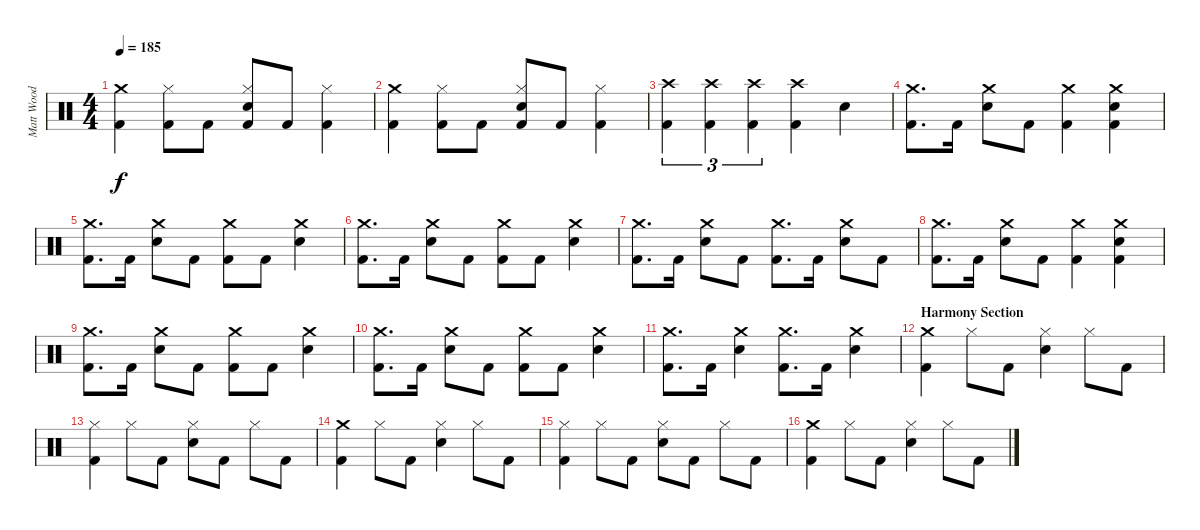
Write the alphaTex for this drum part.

\track ("Matt Wood" "Matt Wood") {instrument percussion}
\staff {score}
\articulation defaults
\ts (4 4)
\tempo 185
\clef neutral
\ks c
("Crash medium (hit)" "Kick (hit) 2").4{dy f} ("Hi-Hat (closed)" "Kick (hit) 2").8 "Kick (hit) 2".8 ("Hi-Hat (closed)" "Snare (hit) 2" "Kick (hit) 2").8 "Kick (hit) 2".8 ("Hi-Hat (closed)" "Kick (hit) 2").4 |
("Crash medium (hit)" "Kick (hit) 2").4 ("Hi-Hat (closed)" "Kick (hit) 2").8 "Kick (hit) 2".8 ("Hi-Hat (closed)" "Snare (hit) 2" "Kick (hit) 2").8 "Kick (hit) 2".8 ("Hi-Hat (closed)" "Kick (hit) 2").4 |
("Crash high (hit)" "Kick (hit) 2").4{tu (3 2)} ("Crash high (hit)" "Kick (hit) 2").4{tu (3 2)} ("Crash high (hit)" "Kick (hit) 2").4{tu (3 2)} ("Crash high (hit)" "Kick (hit) 2").4 "Snare (hit) 2".4 |
("Crash medium (hit)" "Kick (hit) 2").8{d} "Kick (hit) 2".16 ("Crash medium (hit)" "Snare (hit) 2").8 "Kick (hit) 2".8 ("Crash medium (hit)" "Kick (hit) 2").4 ("Crash medium (hit)" "Snare (hit) 2" "Kick (hit) 2").4 |
("Crash medium (hit)" "Kick (hit) 2").8{d} "Kick (hit) 2".16 ("Crash medium (hit)" "Snare (hit) 2").8 "Kick (hit) 2".8 ("Crash medium (hit)" "Kick (hit) 2").8 "Kick (hit) 2".8 ("Crash medium (hit)" "Snare (hit) 2").4 |
("Crash medium (hit)" "Kick (hit) 2").8{d} "Kick (hit) 2".16 ("Crash medium (hit)" "Snare (hit) 2").8 "Kick (hit) 2".8 ("Crash medium (hit)" "Kick (hit) 2").8 "Kick (hit) 2".8 ("Crash medium (hit)" "Snare (hit) 2").4 |
("Crash medium (hit)" "Kick (hit) 2").8{d} "Kick (hit) 2".16 ("Crash medium (hit)" "Snare (hit) 2").8 "Kick (hit) 2".8 ("Crash medium (hit)" "Kick (hit) 2").8{d} "Kick (hit) 2".16 ("Crash medium (hit)" "Snare (hit) 2").8 "Kick (hit) 2".8 |
("Crash medium (hit)" "Kick (hit) 2").8{d} "Kick (hit) 2".16 ("Crash medium (hit)" "Snare (hit) 2").8 "Kick (hit) 2".8 ("Crash medium (hit)" "Kick (hit) 2").4 ("Crash medium (hit)" "Snare (hit) 2" "Kick (hit) 2").4 |
("Crash medium (hit)" "Kick (hit) 2").8{d} "Kick (hit) 2".16 ("Crash medium (hit)" "Snare (hit) 2").8 "Kick (hit) 2".8 ("Crash medium (hit)" "Kick (hit) 2").8 "Kick (hit) 2".8 ("Crash medium (hit)" "Snare (hit) 2").4 |
("Crash medium (hit)" "Kick (hit) 2").8{d} "Kick (hit) 2".16 ("Crash medium (hit)" "Snare (hit) 2").8 "Kick (hit) 2".8 ("Crash medium (hit)" "Kick (hit) 2").8 "Kick (hit) 2".8 ("Crash medium (hit)" "Snare (hit) 2").4 |
("Crash medium (hit)" "Kick (hit) 2").8{d} "Kick (hit) 2".16 ("Crash medium (hit)" "Snare (hit) 2").4 ("Crash medium (hit)" "Kick (hit) 2").8{d} "Kick (hit) 2".16 ("Crash medium (hit)" "Snare (hit) 2").4 |
\section ("" "Harmony Section")
("Crash medium (hit)" "Kick (hit) 2").4 "Hi-Hat (closed)".8 "Kick (hit) 2".8 ("Hi-Hat (closed)" "Snare (hit) 2").4 "Hi-Hat (closed)".8 "Kick (hit) 2".8 |
("Hi-Hat (closed)" "Kick (hit) 2").4 "Hi-Hat (closed)".8 "Kick (hit) 2".8 ("Hi-Hat (closed)" "Snare (hit) 2").8 "Kick (hit) 2".8 "Hi-Hat (closed)".8 "Kick (hit) 2".8 |
("Crash medium (hit)" "Kick (hit) 2").4 "Hi-Hat (closed)".8 "Kick (hit) 2".8 ("Hi-Hat (closed)" "Snare (hit) 2").4 "Hi-Hat (closed)".8 "Kick (hit) 2".8 |
("Hi-Hat (closed)" "Kick (hit) 2").4 "Hi-Hat (closed)".8 "Kick (hit) 2".8 ("Hi-Hat (closed)" "Snare (hit) 2").8 "Kick (hit) 2".8 "Hi-Hat (closed)".8 "Kick (hit) 2".8 |
("Crash medium (hit)" "Kick (hit) 2").4 "Hi-Hat (closed)".8 "Kick (hit) 2".8 ("Hi-Hat (closed)" "Snare (hit) 2").4 "Hi-Hat (closed)".8 "Kick (hit) 2".8
